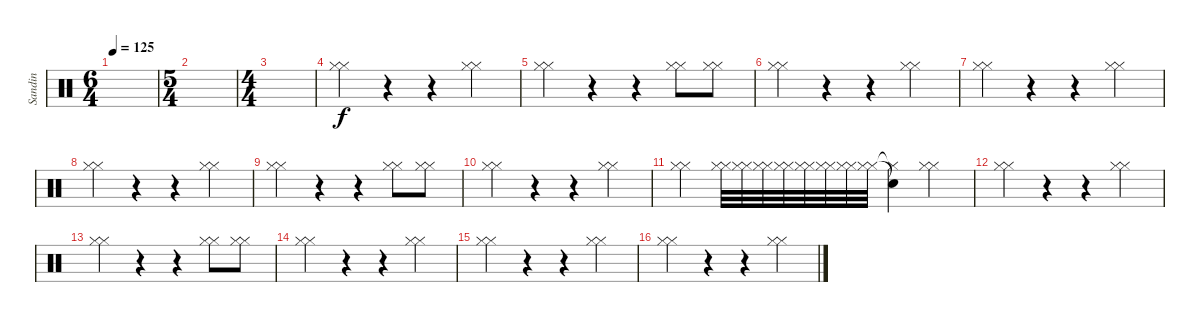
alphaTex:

\track ("Sandin" "Sandin") {instrument percussion}
\staff {score}
\articulation defaults
\ts (6 4)
\tempo 125
\clef neutral
\ks c
|
\ts (5 4)
|
\ts (4 4)
|
("Hi-Hat (closed)" "Hi-Hat (closed)").4 r.4 r.4 ("Hi-Hat (closed)" "Hi-Hat (closed)").4 |
("Hi-Hat (closed)" "Hi-Hat (closed)").4 r.4 r.4 ("Hi-Hat (closed)" "Hi-Hat (closed)").8 ("Hi-Hat (closed)" "Hi-Hat (closed)").8 |
("Hi-Hat (closed)" "Hi-Hat (closed)").4 r.4 r.4 ("Hi-Hat (closed)" "Hi-Hat (closed)").4 |
("Hi-Hat (closed)" "Hi-Hat (closed)").4 r.4 r.4 ("Hi-Hat (closed)" "Hi-Hat (closed)").4 |
("Hi-Hat (closed)" "Hi-Hat (closed)").4 r.4 r.4 ("Hi-Hat (closed)" "Hi-Hat (closed)").4 |
("Hi-Hat (closed)" "Hi-Hat (closed)").4 r.4 r.4 ("Hi-Hat (closed)" "Hi-Hat (closed)").8 ("Hi-Hat (closed)" "Hi-Hat (closed)").8 |
("Hi-Hat (closed)" "Hi-Hat (closed)").4 r.4 r.4 ("Hi-Hat (closed)" "Hi-Hat (closed)").4 |
("Hi-Hat (closed)" "Hi-Hat (closed)").4 ("Hi-Hat (closed)" "Hi-Hat (closed)").32 ("Hi-Hat (closed)" "Hi-Hat (closed)").32 ("Hi-Hat (closed)" "Hi-Hat (closed)").32 ("Hi-Hat (closed)" "Hi-Hat (closed)").32 ("Hi-Hat (closed)" "Hi-Hat (closed)").32 ("Hi-Hat (closed)" "Hi-Hat (closed)").32 ("Hi-Hat (closed)" "Hi-Hat (closed)").32 ("Hi-Hat (closed)" "Hi-Hat (closed)").32 ("Snare (hit)"{t} "Hi-Hat (closed)"{t}).4 ("Hi-Hat (closed)" "Hi-Hat (closed)").4 |
("Hi-Hat (closed)" "Hi-Hat (closed)").4 r.4 r.4 ("Hi-Hat (closed)" "Hi-Hat (closed)").4 |
("Hi-Hat (closed)" "Hi-Hat (closed)").4 r.4 r.4 ("Hi-Hat (closed)" "Hi-Hat (closed)").8 ("Hi-Hat (closed)" "Hi-Hat (closed)").8 |
("Hi-Hat (closed)" "Hi-Hat (closed)").4 r.4 r.4 ("Hi-Hat (closed)" "Hi-Hat (closed)").4 |
("Hi-Hat (closed)" "Hi-Hat (closed)").4 r.4 r.4 ("Hi-Hat (closed)" "Hi-Hat (closed)").4 |
("Hi-Hat (closed)" "Hi-Hat (closed)").4 r.4 r.4 ("Hi-Hat (closed)" "Hi-Hat (closed)").4
